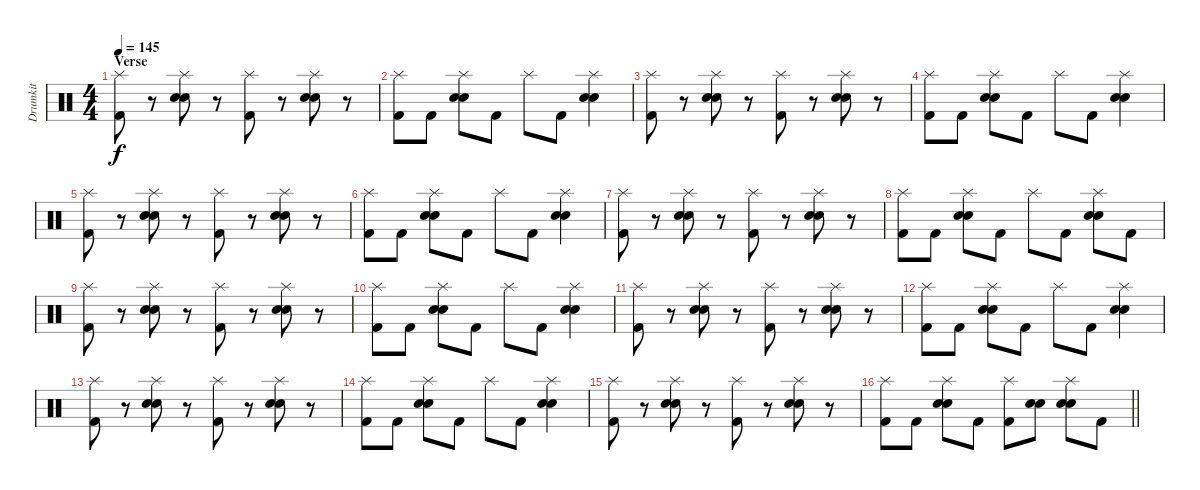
\track ("Drumkit" "Drumkit") {instrument percussion}
\staff {score}
\articulation defaults
\ts (4 4)
\section ("" "Verse")
\tempo 145
\clef neutral
\ks c
("Splash (hit)" "Kick (hit) 2").8{dy f} r.8 ("Splash (hit)" "Electric Snare (hit)" "Snare (hit) 2").8 r.8 ("Splash (hit)" "Kick (hit) 2").8 r.8 ("Splash (hit)" "Electric Snare (hit)" "Snare (hit) 2").8 r.8 |
("Splash (hit)" "Kick (hit) 2").8 "Kick (hit) 2".8 ("Splash (hit)" "Electric Snare (hit)" "Snare (hit) 2").8 "Kick (hit) 2".8 "Splash (hit)".8 "Kick (hit) 2".8 ("Splash (hit)" "Electric Snare (hit)" "Snare (hit) 2").4 |
("Splash (hit)" "Kick (hit) 2").8 r.8 ("Splash (hit)" "Electric Snare (hit)" "Snare (hit) 2").8 r.8 ("Splash (hit)" "Kick (hit) 2").8 r.8 ("Splash (hit)" "Electric Snare (hit)" "Snare (hit) 2").8 r.8 |
("Splash (hit)" "Kick (hit) 2").8 "Kick (hit) 2".8 ("Splash (hit)" "Electric Snare (hit)" "Snare (hit) 2").8 "Kick (hit) 2".8 "Splash (hit)".8 "Kick (hit) 2".8 ("Splash (hit)" "Electric Snare (hit)" "Snare (hit) 2").4 |
("Splash (hit)" "Kick (hit) 2").8 r.8 ("Splash (hit)" "Electric Snare (hit)" "Snare (hit) 2").8 r.8 ("Splash (hit)" "Kick (hit) 2").8 r.8 ("Splash (hit)" "Electric Snare (hit)" "Snare (hit) 2").8 r.8 |
("Splash (hit)" "Kick (hit) 2").8 "Kick (hit) 2".8 ("Splash (hit)" "Electric Snare (hit)" "Snare (hit) 2").8 "Kick (hit) 2".8 "Splash (hit)".8 "Kick (hit) 2".8 ("Splash (hit)" "Electric Snare (hit)" "Snare (hit) 2").4 |
("Splash (hit)" "Kick (hit) 2").8 r.8 ("Splash (hit)" "Electric Snare (hit)" "Snare (hit) 2").8 r.8 ("Splash (hit)" "Kick (hit) 2").8 r.8 ("Splash (hit)" "Electric Snare (hit)" "Snare (hit) 2").8 r.8 |
("Splash (hit)" "Kick (hit) 2").8 "Kick (hit) 2".8 ("Splash (hit)" "Electric Snare (hit)" "Snare (hit) 2").8 "Kick (hit) 2".8 "Splash (hit)".8 "Kick (hit) 2".8 ("Splash (hit)" "Electric Snare (hit)" "Snare (hit) 2").8 "Kick (hit) 2".8 |
("Splash (hit)" "Kick (hit) 2").8 r.8 ("Splash (hit)" "Electric Snare (hit)" "Snare (hit) 2").8 r.8 ("Splash (hit)" "Kick (hit) 2").8 r.8 ("Splash (hit)" "Electric Snare (hit)" "Snare (hit) 2").8 r.8 |
("Splash (hit)" "Kick (hit) 2").8 "Kick (hit) 2".8 ("Splash (hit)" "Electric Snare (hit)" "Snare (hit) 2").8 "Kick (hit) 2".8 "Splash (hit)".8 "Kick (hit) 2".8 ("Splash (hit)" "Electric Snare (hit)" "Snare (hit) 2").4 |
("Splash (hit)" "Kick (hit) 2").8 r.8 ("Splash (hit)" "Electric Snare (hit)" "Snare (hit) 2").8 r.8 ("Splash (hit)" "Kick (hit) 2").8 r.8 ("Splash (hit)" "Electric Snare (hit)" "Snare (hit) 2").8 r.8 |
("Splash (hit)" "Kick (hit) 2").8 "Kick (hit) 2".8 ("Splash (hit)" "Electric Snare (hit)" "Snare (hit) 2").8 "Kick (hit) 2".8 "Splash (hit)".8 "Kick (hit) 2".8 ("Splash (hit)" "Electric Snare (hit)" "Snare (hit) 2").4 |
("Splash (hit)" "Kick (hit) 2").8 r.8 ("Splash (hit)" "Electric Snare (hit)" "Snare (hit) 2").8 r.8 ("Splash (hit)" "Kick (hit) 2").8 r.8 ("Splash (hit)" "Electric Snare (hit)" "Snare (hit) 2").8 r.8 |
("Splash (hit)" "Kick (hit) 2").8 "Kick (hit) 2".8 ("Splash (hit)" "Electric Snare (hit)" "Snare (hit) 2").8 "Kick (hit) 2".8 "Splash (hit)".8 "Kick (hit) 2".8 ("Splash (hit)" "Electric Snare (hit)" "Snare (hit) 2").4 |
("Splash (hit)" "Kick (hit) 2").8 r.8 ("Splash (hit)" "Electric Snare (hit)" "Snare (hit) 2").8 r.8 ("Splash (hit)" "Kick (hit) 2").8 r.8 ("Splash (hit)" "Electric Snare (hit)" "Snare (hit) 2").8 r.8 |
\barLineRight lightlight
("Splash (hit)" "Kick (hit) 2").8 "Kick (hit) 2".8 ("Splash (hit)" "Electric Snare (hit)" "Snare (hit) 2").8 "Kick (hit) 2".8 ("Splash (hit)" "Kick (hit) 2").8 ("Electric Snare (hit)" "Snare (hit) 2").8 ("Splash (hit)" "Electric Snare (hit)" "Snare (hit) 2").8 "Kick (hit) 2".8
